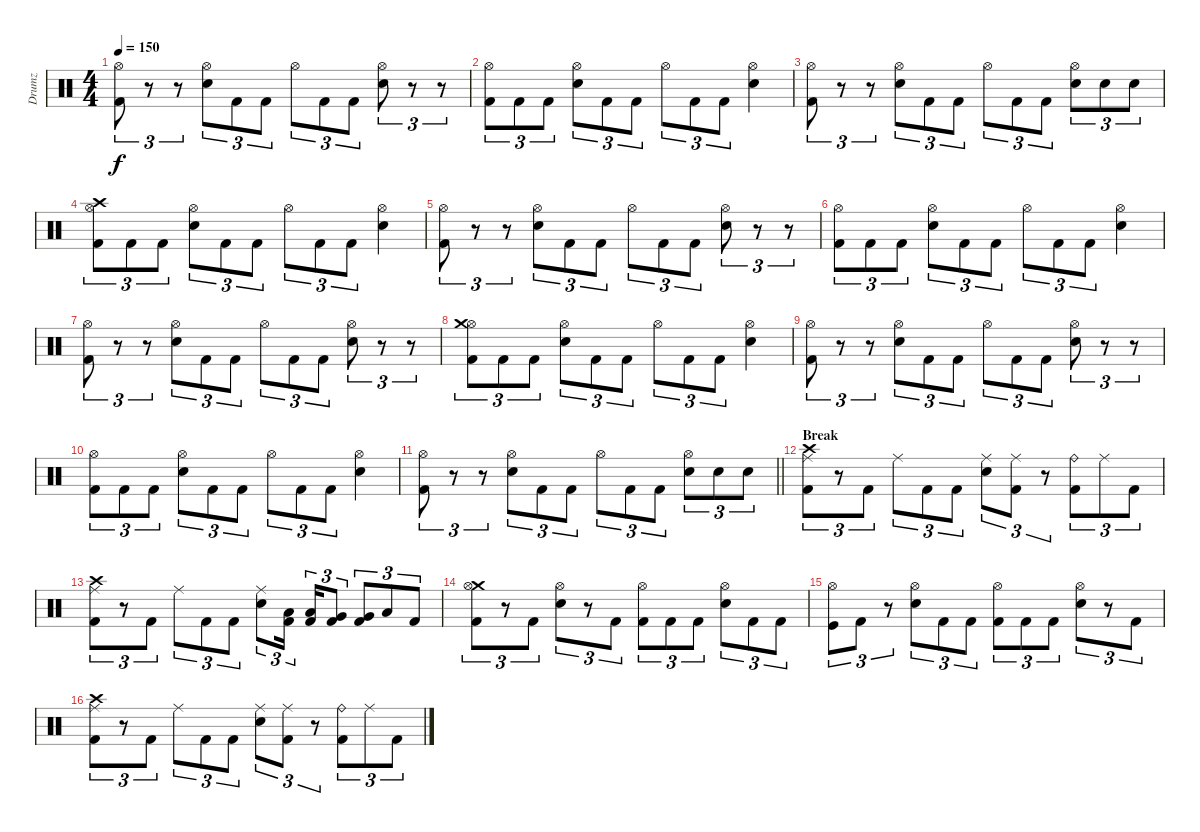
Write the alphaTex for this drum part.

\track ("Drumz" "Drumz") {instrument percussion}
\staff {score}
\articulation defaults
\ts (4 4)
\tempo 150
\clef neutral
\ks c
("Hi-Hat (open)" "Kick (hit) 2").8{tu (3 2) dy f} r.8{tu (3 2)} r.8{tu (3 2)} ("Hi-Hat (open)" "Snare (hit) 2").8{tu (3 2)} "Kick (hit) 2".8{tu (3 2)} "Kick (hit) 2".8{tu (3 2)} "Hi-Hat (open)".8{tu (3 2)} "Kick (hit) 2".8{tu (3 2)} "Kick (hit) 2".8{tu (3 2)} ("Hi-Hat (open)" "Snare (hit) 2").8{tu (3 2)} r.8{tu (3 2)} r.8{tu (3 2)} |
("Hi-Hat (open)" "Kick (hit) 2").8{tu (3 2)} "Kick (hit) 2".8{tu (3 2)} "Kick (hit) 2".8{tu (3 2)} ("Hi-Hat (open)" "Snare (hit) 2").8{tu (3 2)} "Kick (hit) 2".8{tu (3 2)} "Kick (hit) 2".8{tu (3 2)} "Hi-Hat (open)".8{tu (3 2)} "Kick (hit) 2".8{tu (3 2)} "Kick (hit) 2".8{tu (3 2)} ("Hi-Hat (open)" "Snare (hit) 2").4 |
("Hi-Hat (open)" "Kick (hit) 2").8{tu (3 2)} r.8{tu (3 2)} r.8{tu (3 2)} ("Hi-Hat (open)" "Snare (hit) 2").8{tu (3 2)} "Kick (hit) 2".8{tu (3 2)} "Kick (hit) 2".8{tu (3 2)} "Hi-Hat (open)".8{tu (3 2)} "Kick (hit) 2".8{tu (3 2)} "Kick (hit) 2".8{tu (3 2)} ("Hi-Hat (open)" "Snare (hit) 2").8{tu (3 2)} "Snare (hit) 2".8{tu (3 2)} "Snare (hit) 2".8{tu (3 2)} |
("Hi-Hat (open)" "Kick (hit) 2" "Crash high (hit)").8{tu (3 2)} "Kick (hit) 2".8{tu (3 2)} "Kick (hit) 2".8{tu (3 2)} ("Hi-Hat (open)" "Snare (hit) 2").8{tu (3 2)} "Kick (hit) 2".8{tu (3 2)} "Kick (hit) 2".8{tu (3 2)} "Hi-Hat (open)".8{tu (3 2)} "Kick (hit) 2".8{tu (3 2)} "Kick (hit) 2".8{tu (3 2)} ("Hi-Hat (open)" "Snare (hit) 2").4 |
("Hi-Hat (open)" "Kick (hit) 2").8{tu (3 2)} r.8{tu (3 2)} r.8{tu (3 2)} ("Hi-Hat (open)" "Snare (hit) 2").8{tu (3 2)} "Kick (hit) 2".8{tu (3 2)} "Kick (hit) 2".8{tu (3 2)} "Hi-Hat (open)".8{tu (3 2)} "Kick (hit) 2".8{tu (3 2)} "Kick (hit) 2".8{tu (3 2)} ("Hi-Hat (open)" "Snare (hit) 2").8{tu (3 2)} r.8{tu (3 2)} r.8{tu (3 2)} |
("Hi-Hat (open)" "Kick (hit) 2").8{tu (3 2)} "Kick (hit) 2".8{tu (3 2)} "Kick (hit) 2".8{tu (3 2)} ("Hi-Hat (open)" "Snare (hit) 2").8{tu (3 2)} "Kick (hit) 2".8{tu (3 2)} "Kick (hit) 2".8{tu (3 2)} "Hi-Hat (open)".8{tu (3 2)} "Kick (hit) 2".8{tu (3 2)} "Kick (hit) 2".8{tu (3 2)} ("Hi-Hat (open)" "Snare (hit) 2").4 |
("Hi-Hat (open)" "Kick (hit) 2").8{tu (3 2)} r.8{tu (3 2)} r.8{tu (3 2)} ("Hi-Hat (open)" "Snare (hit) 2").8{tu (3 2)} "Kick (hit) 2".8{tu (3 2)} "Kick (hit) 2".8{tu (3 2)} "Hi-Hat (open)".8{tu (3 2)} "Kick (hit) 2".8{tu (3 2)} "Kick (hit) 2".8{tu (3 2)} ("Hi-Hat (open)" "Snare (hit) 2").8{tu (3 2)} r.8{tu (3 2)} r.8{tu (3 2)} |
("Kick (hit) 2" "Hi-Hat (open)" "Crash medium (hit)").8{tu (3 2)} "Kick (hit) 2".8{tu (3 2)} "Kick (hit) 2".8{tu (3 2)} ("Hi-Hat (open)" "Snare (hit) 2").8{tu (3 2)} "Kick (hit) 2".8{tu (3 2)} "Kick (hit) 2".8{tu (3 2)} "Hi-Hat (open)".8{tu (3 2)} "Kick (hit) 2".8{tu (3 2)} "Kick (hit) 2".8{tu (3 2)} ("Hi-Hat (open)" "Snare (hit) 2").4 |
("Hi-Hat (open)" "Kick (hit) 2").8{tu (3 2)} r.8{tu (3 2)} r.8{tu (3 2)} ("Hi-Hat (open)" "Snare (hit) 2").8{tu (3 2)} "Kick (hit) 2".8{tu (3 2)} "Kick (hit) 2".8{tu (3 2)} "Hi-Hat (open)".8{tu (3 2)} "Kick (hit) 2".8{tu (3 2)} "Kick (hit) 2".8{tu (3 2)} ("Hi-Hat (open)" "Snare (hit) 2").8{tu (3 2)} r.8{tu (3 2)} r.8{tu (3 2)} |
("Hi-Hat (open)" "Kick (hit) 2").8{tu (3 2)} "Kick (hit) 2".8{tu (3 2)} "Kick (hit) 2".8{tu (3 2)} ("Hi-Hat (open)" "Snare (hit) 2").8{tu (3 2)} "Kick (hit) 2".8{tu (3 2)} "Kick (hit) 2".8{tu (3 2)} "Hi-Hat (open)".8{tu (3 2)} "Kick (hit) 2".8{tu (3 2)} "Kick (hit) 2".8{tu (3 2)} ("Hi-Hat (open)" "Snare (hit) 2").4 |
\barLineRight lightlight
("Hi-Hat (open)" "Kick (hit) 2").8{tu (3 2)} r.8{tu (3 2)} r.8{tu (3 2)} ("Hi-Hat (open)" "Snare (hit) 2").8{tu (3 2)} "Kick (hit) 2".8{tu (3 2)} "Kick (hit) 2".8{tu (3 2)} "Hi-Hat (open)".8{tu (3 2)} "Kick (hit) 2".8{tu (3 2)} "Kick (hit) 2".8{tu (3 2)} ("Hi-Hat (open)" "Snare (hit) 2").8{tu (3 2)} "Snare (hit) 2".8{tu (3 2)} "Snare (hit) 2".8{tu (3 2)} |
\section ("" "Break")
("Kick (hit) 2" "Crash high (hit)" "Ride (middle)").8{tu (3 2)} r.8{tu (3 2)} "Kick (hit) 2".8{tu (3 2)} "Ride (middle)".8{tu (3 2)} "Kick (hit) 2".8{tu (3 2)} "Kick (hit) 2".8{tu (3 2)} ("Snare (hit) 2" "Ride (middle)").8{tu (3 2)} ("Kick (hit) 2" "Ride (middle)").8{tu (3 2)} r.8{tu (3 2)} ("Kick (hit) 2" "Ride (bell)").8{tu (3 2)} "Ride (middle)".8{tu (3 2)} "Kick (hit) 2".8{tu (3 2)} |
("Kick (hit) 2" "Crash high (hit)" "Ride (middle)").8{tu (3 2)} r.8{tu (3 2)} "Kick (hit) 2".8{tu (3 2)} "Ride (middle)".8{tu (3 2)} "Kick (hit) 2".8{tu (3 2)} "Kick (hit) 2".8{tu (3 2)} ("Snare (hit) 2" "Ride (middle)").8{tu (3 2)} ("Kick (hit) 2" "Low Tom (hit)").16{tu (3 2) beam splitsecondary} ("Kick (hit) 2" "Low Tom (hit)").16{tu (3 2)} ("Kick (hit) 2" "Very Low Tom (hit)").8{tu (3 2)} ("Kick (hit) 2" "Very Low Tom (hit)").8{tu (3 2)} "Low Floor Tom (hit)".8{tu (3 2)} "Kick (hit) 2".8{tu (3 2)} |
("Crash medium (hit)" "Hi-Hat (open)" "Kick (hit) 2").8{tu (3 2)} r.8{tu (3 2)} "Kick (hit) 2".8{tu (3 2)} ("Hi-Hat (open)" "Snare (hit) 2").8{tu (3 2)} r.8{tu (3 2)} "Kick (hit) 2".8{tu (3 2)} ("Kick (hit) 2" "Hi-Hat (open)").8{tu (3 2)} "Kick (hit) 2".8{tu (3 2)} "Kick (hit) 2".8{tu (3 2)} ("Hi-Hat (open)" "Snare (hit) 2").8{tu (3 2)} "Kick (hit) 2".8{tu (3 2)} "Kick (hit) 2".8{tu (3 2)} |
("Kick (hit)" "Hi-Hat (open)").8{tu (3 2)} "Kick (hit) 2".8{tu (3 2)} r.8{tu (3 2)} ("Hi-Hat (open)" "Snare (hit) 2").8{tu (3 2)} "Kick (hit) 2".8{tu (3 2)} "Kick (hit) 2".8{tu (3 2)} ("Kick (hit) 2" "Hi-Hat (open)").8{tu (3 2)} "Kick (hit) 2".8{tu (3 2)} "Kick (hit) 2".8{tu (3 2)} ("Hi-Hat (open)" "Snare (hit) 2").8{tu (3 2)} r.8{tu (3 2)} "Kick (hit) 2".8{tu (3 2)} |
("Kick (hit) 2" "Crash high (hit)" "Ride (middle)").8{tu (3 2)} r.8{tu (3 2)} "Kick (hit) 2".8{tu (3 2)} "Ride (middle)".8{tu (3 2)} "Kick (hit) 2".8{tu (3 2)} "Kick (hit) 2".8{tu (3 2)} ("Snare (hit) 2" "Ride (middle)").8{tu (3 2)} ("Kick (hit) 2" "Ride (middle)").8{tu (3 2)} r.8{tu (3 2)} ("Kick (hit) 2" "Ride (bell)").8{tu (3 2)} "Ride (middle)".8{tu (3 2)} "Kick (hit) 2".8{tu (3 2)}
